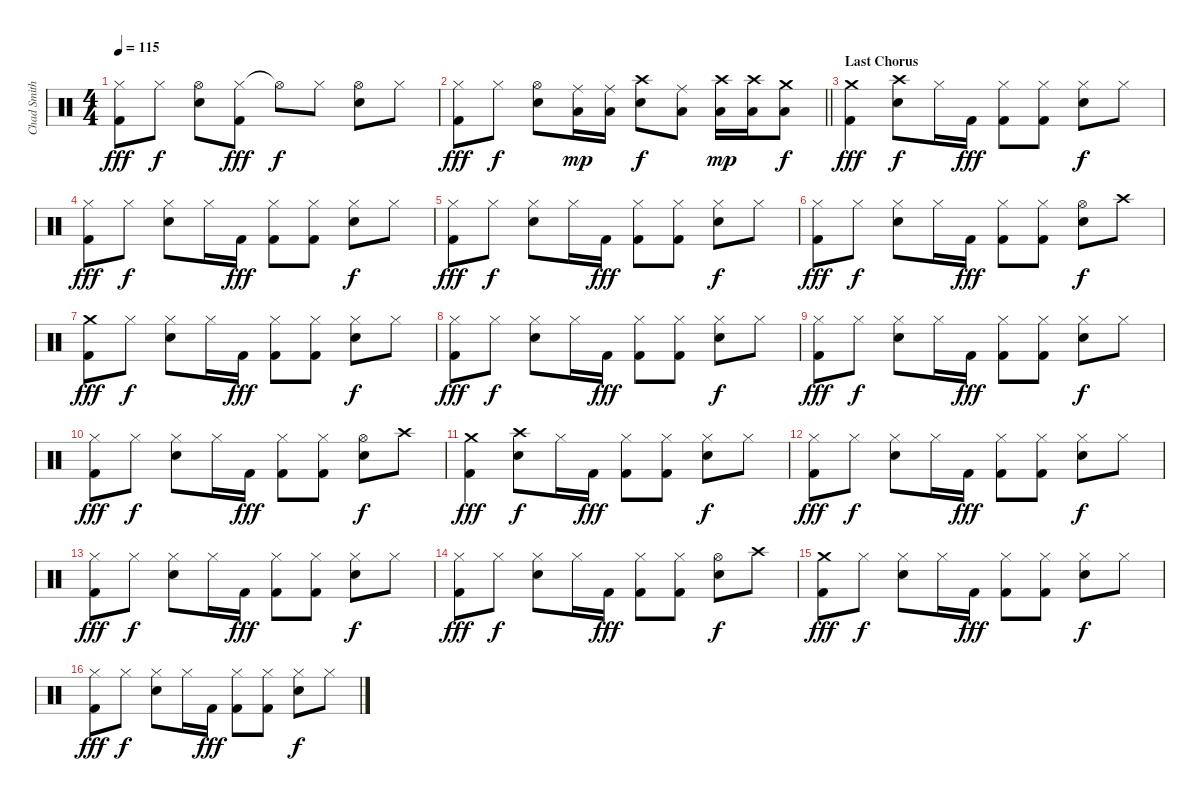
\track ("Chad Smith - Drums" "Chad Smith") {instrument percussion}
\staff {score}
\articulation defaults
\ts (4 4)
\tempo 115
\clef neutral
\ks c
("Hi-Hat (closed)" "Kick (hit) 2").8{dy fff} "Hi-Hat (closed)".8{dy f} ("Hi-Hat (open)" "Electric Snare (hit)").8 ("Hi-Hat (closed)" "Kick (hit) 2").8{dy fff} "Hi-Hat (open)"{t}.8{dy f} "Hi-Hat (closed)".8 ("Hi-Hat (open)" "Electric Snare (hit)").8 "Hi-Hat (closed)".8 |
\barLineRight lightlight
("Hi-Hat (closed)" "Kick (hit) 2").8{dy fff} "Hi-Hat (closed)".8{dy f} ("Hi-Hat (open)" "Electric Snare (hit)").8 ("Ride (middle)" "Low Tom (hit)").16{dy mp} ("Ride (middle)" "Low Tom (hit)").16 ("Crash high (hit)" "Electric Snare (hit)").8{dy f} ("Ride (middle)" "Low Tom (hit)").8 ("Crash high (hit)" "Low Tom (hit)").16{dy mp} ("Crash high (hit)" "Low Tom (hit)").16 ("Crash medium (hit)" "Low Floor Tom (hit)").8{dy f} |
\section ("" "Last Chorus")
("Crash medium (hit)" "Kick (hit) 2").4{dy fff} ("Crash high (hit)" "Electric Snare (hit)").8{dy f} "Hi-Hat (closed)".16 "Kick (hit) 2".16{dy fff} ("Hi-Hat (closed)" "Kick (hit) 2").8 ("Hi-Hat (closed)" "Kick (hit) 2").8 ("Hi-Hat (closed)" "Electric Snare (hit)").8{dy f} "Hi-Hat (closed)".8 |
("Hi-Hat (closed)" "Kick (hit) 2").8{dy fff} "Hi-Hat (closed)".8{dy f} ("Hi-Hat (closed)" "Electric Snare (hit)").8 "Hi-Hat (closed)".16 "Kick (hit) 2".16{dy fff} ("Hi-Hat (closed)" "Kick (hit) 2").8 ("Hi-Hat (closed)" "Kick (hit) 2").8 ("Hi-Hat (closed)" "Electric Snare (hit)").8{dy f} "Hi-Hat (closed)".8 |
("Hi-Hat (closed)" "Kick (hit) 2").8{dy fff} "Hi-Hat (closed)".8{dy f} ("Hi-Hat (closed)" "Electric Snare (hit)").8 "Hi-Hat (closed)".16 "Kick (hit) 2".16{dy fff} ("Hi-Hat (closed)" "Kick (hit) 2").8 ("Hi-Hat (closed)" "Kick (hit) 2").8 ("Hi-Hat (closed)" "Electric Snare (hit)").8{dy f} "Hi-Hat (closed)".8 |
("Hi-Hat (closed)" "Kick (hit) 2").8{dy fff} "Hi-Hat (closed)".8{dy f} ("Hi-Hat (closed)" "Electric Snare (hit)").8 "Hi-Hat (closed)".16 "Kick (hit) 2".16{dy fff} ("Hi-Hat (closed)" "Kick (hit) 2").8 ("Hi-Hat (closed)" "Kick (hit) 2").8 ("Hi-Hat (open)" "Electric Snare (hit)").8{dy f} "Crash high (hit)".8 |
("Crash medium (hit)" "Kick (hit) 2").8{dy fff} "Hi-Hat (closed)".8{dy f} ("Hi-Hat (closed)" "Electric Snare (hit)").8 "Hi-Hat (closed)".16 "Kick (hit) 2".16{dy fff} ("Hi-Hat (closed)" "Kick (hit) 2").8 ("Hi-Hat (closed)" "Kick (hit) 2").8 ("Hi-Hat (closed)" "Electric Snare (hit)").8{dy f} "Hi-Hat (closed)".8 |
("Hi-Hat (closed)" "Kick (hit) 2").8{dy fff} "Hi-Hat (closed)".8{dy f} ("Hi-Hat (closed)" "Electric Snare (hit)").8 "Hi-Hat (closed)".16 "Kick (hit) 2".16{dy fff} ("Hi-Hat (closed)" "Kick (hit) 2").8 ("Hi-Hat (closed)" "Kick (hit) 2").8 ("Hi-Hat (closed)" "Electric Snare (hit)").8{dy f} "Hi-Hat (closed)".8 |
("Hi-Hat (closed)" "Kick (hit) 2").8{dy fff} "Hi-Hat (closed)".8{dy f} ("Hi-Hat (closed)" "Electric Snare (hit)").8 "Hi-Hat (closed)".16 "Kick (hit) 2".16{dy fff} ("Hi-Hat (closed)" "Kick (hit) 2").8 ("Hi-Hat (closed)" "Kick (hit) 2").8 ("Hi-Hat (closed)" "Electric Snare (hit)").8{dy f} "Hi-Hat (closed)".8 |
("Hi-Hat (closed)" "Kick (hit) 2").8{dy fff} "Hi-Hat (closed)".8{dy f} ("Hi-Hat (closed)" "Electric Snare (hit)").8 "Hi-Hat (closed)".16 "Kick (hit) 2".16{dy fff} ("Hi-Hat (closed)" "Kick (hit) 2").8 ("Hi-Hat (closed)" "Kick (hit) 2").8 ("Hi-Hat (open)" "Electric Snare (hit)").8{dy f} "Crash high (hit)".8 |
("Crash medium (hit)" "Kick (hit) 2").4{dy fff} ("Crash high (hit)" "Electric Snare (hit)").8{dy f} "Hi-Hat (closed)".16 "Kick (hit) 2".16{dy fff} ("Hi-Hat (closed)" "Kick (hit) 2").8 ("Hi-Hat (closed)" "Kick (hit) 2").8 ("Hi-Hat (closed)" "Electric Snare (hit)").8{dy f} "Hi-Hat (closed)".8 |
("Hi-Hat (closed)" "Kick (hit) 2").8{dy fff} "Hi-Hat (closed)".8{dy f} ("Hi-Hat (closed)" "Electric Snare (hit)").8 "Hi-Hat (closed)".16 "Kick (hit) 2".16{dy fff} ("Hi-Hat (closed)" "Kick (hit) 2").8 ("Hi-Hat (closed)" "Kick (hit) 2").8 ("Hi-Hat (closed)" "Electric Snare (hit)").8{dy f} "Hi-Hat (closed)".8 |
("Hi-Hat (closed)" "Kick (hit) 2").8{dy fff} "Hi-Hat (closed)".8{dy f} ("Hi-Hat (closed)" "Electric Snare (hit)").8 "Hi-Hat (closed)".16 "Kick (hit) 2".16{dy fff} ("Hi-Hat (closed)" "Kick (hit) 2").8 ("Hi-Hat (closed)" "Kick (hit) 2").8 ("Hi-Hat (closed)" "Electric Snare (hit)").8{dy f} "Hi-Hat (closed)".8 |
("Hi-Hat (closed)" "Kick (hit) 2").8{dy fff} "Hi-Hat (closed)".8{dy f} ("Hi-Hat (closed)" "Electric Snare (hit)").8 "Hi-Hat (closed)".16 "Kick (hit) 2".16{dy fff} ("Hi-Hat (closed)" "Kick (hit) 2").8 ("Hi-Hat (closed)" "Kick (hit) 2").8 ("Hi-Hat (open)" "Electric Snare (hit)").8{dy f} "Crash high (hit)".8 |
("Crash medium (hit)" "Kick (hit) 2").8{dy fff} "Hi-Hat (closed)".8{dy f} ("Hi-Hat (closed)" "Electric Snare (hit)").8 "Hi-Hat (closed)".16 "Kick (hit) 2".16{dy fff} ("Hi-Hat (closed)" "Kick (hit) 2").8 ("Hi-Hat (closed)" "Kick (hit) 2").8 ("Hi-Hat (closed)" "Electric Snare (hit)").8{dy f} "Hi-Hat (closed)".8 |
("Hi-Hat (closed)" "Kick (hit) 2").8{dy fff} "Hi-Hat (closed)".8{dy f} ("Hi-Hat (closed)" "Electric Snare (hit)").8 "Hi-Hat (closed)".16 "Kick (hit) 2".16{dy fff} ("Hi-Hat (closed)" "Kick (hit) 2").8 ("Hi-Hat (closed)" "Kick (hit) 2").8 ("Hi-Hat (closed)" "Electric Snare (hit)").8{dy f} "Hi-Hat (closed)".8
